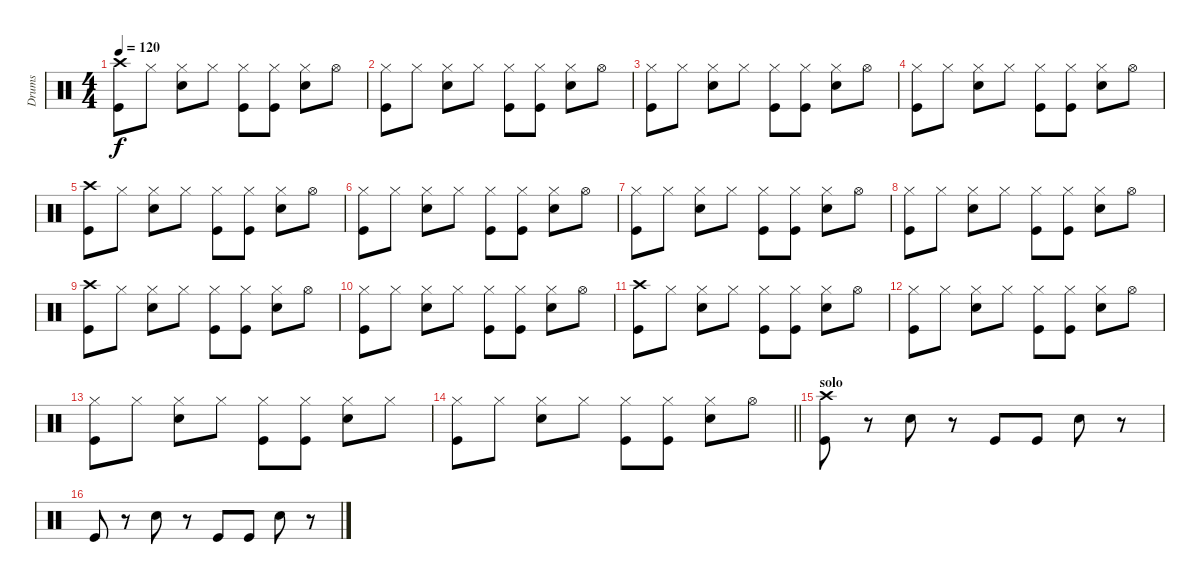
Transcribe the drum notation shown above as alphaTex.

\track ("Drums" "Drums") {instrument percussion}
\staff {score}
\articulation defaults
\ts (4 4)
\tempo 120
\clef neutral
\ks c
("Crash high (hit)" "Kick (hit)").8{dy f} "Hi-Hat (closed)".8 ("Hi-Hat (closed)" "Electric Snare (hit)").8 "Hi-Hat (closed)".8 ("Hi-Hat (closed)" "Kick (hit)").8 ("Hi-Hat (closed)" "Kick (hit)").8 ("Hi-Hat (closed)" "Electric Snare (hit)").8 "Hi-Hat (open)".8 |
("Hi-Hat (closed)" "Kick (hit)").8 "Hi-Hat (closed)".8 ("Hi-Hat (closed)" "Electric Snare (hit)").8 "Hi-Hat (closed)".8 ("Hi-Hat (closed)" "Kick (hit)").8 ("Hi-Hat (closed)" "Kick (hit)").8 ("Hi-Hat (closed)" "Electric Snare (hit)").8 "Hi-Hat (open)".8 |
("Hi-Hat (closed)" "Kick (hit)").8 "Hi-Hat (closed)".8 ("Hi-Hat (closed)" "Electric Snare (hit)").8 "Hi-Hat (closed)".8 ("Hi-Hat (closed)" "Kick (hit)").8 ("Hi-Hat (closed)" "Kick (hit)").8 ("Hi-Hat (closed)" "Electric Snare (hit)").8 "Hi-Hat (open)".8 |
("Hi-Hat (closed)" "Kick (hit)").8 "Hi-Hat (closed)".8 ("Hi-Hat (closed)" "Electric Snare (hit)").8 "Hi-Hat (closed)".8 ("Hi-Hat (closed)" "Kick (hit)").8 ("Hi-Hat (closed)" "Kick (hit)").8 ("Hi-Hat (closed)" "Electric Snare (hit)").8 "Hi-Hat (open)".8 |
("Crash high (hit)" "Kick (hit)").8 "Hi-Hat (closed)".8 ("Hi-Hat (closed)" "Electric Snare (hit)").8 "Hi-Hat (closed)".8 ("Hi-Hat (closed)" "Kick (hit)").8 ("Hi-Hat (closed)" "Kick (hit)").8 ("Hi-Hat (closed)" "Electric Snare (hit)").8 "Hi-Hat (open)".8 |
("Hi-Hat (closed)" "Kick (hit)").8 "Hi-Hat (closed)".8 ("Hi-Hat (closed)" "Electric Snare (hit)").8 "Hi-Hat (closed)".8 ("Hi-Hat (closed)" "Kick (hit)").8 ("Hi-Hat (closed)" "Kick (hit)").8 ("Hi-Hat (closed)" "Electric Snare (hit)").8 "Hi-Hat (open)".8 |
("Hi-Hat (closed)" "Kick (hit)").8 "Hi-Hat (closed)".8 ("Hi-Hat (closed)" "Electric Snare (hit)").8 "Hi-Hat (closed)".8 ("Hi-Hat (closed)" "Kick (hit)").8 ("Hi-Hat (closed)" "Kick (hit)").8 ("Hi-Hat (closed)" "Electric Snare (hit)").8 "Hi-Hat (open)".8 |
("Hi-Hat (closed)" "Kick (hit)").8 "Hi-Hat (closed)".8 ("Hi-Hat (closed)" "Electric Snare (hit)").8 "Hi-Hat (closed)".8 ("Hi-Hat (closed)" "Kick (hit)").8 ("Hi-Hat (closed)" "Kick (hit)").8 ("Hi-Hat (closed)" "Electric Snare (hit)").8 "Hi-Hat (open)".8 |
("Crash high (hit)" "Kick (hit)").8 "Hi-Hat (closed)".8 ("Hi-Hat (closed)" "Electric Snare (hit)").8 "Hi-Hat (closed)".8 ("Hi-Hat (closed)" "Kick (hit)").8 ("Hi-Hat (closed)" "Kick (hit)").8 ("Hi-Hat (closed)" "Electric Snare (hit)").8 "Hi-Hat (open)".8 |
("Hi-Hat (closed)" "Kick (hit)").8 "Hi-Hat (closed)".8 ("Hi-Hat (closed)" "Electric Snare (hit)").8 "Hi-Hat (closed)".8 ("Hi-Hat (closed)" "Kick (hit)").8 ("Hi-Hat (closed)" "Kick (hit)").8 ("Hi-Hat (closed)" "Electric Snare (hit)").8 "Hi-Hat (open)".8 |
("Crash high (hit)" "Kick (hit)").8 "Hi-Hat (closed)".8 ("Hi-Hat (closed)" "Electric Snare (hit)").8 "Hi-Hat (closed)".8 ("Hi-Hat (closed)" "Kick (hit)").8 ("Hi-Hat (closed)" "Kick (hit)").8 ("Hi-Hat (closed)" "Electric Snare (hit)").8 "Hi-Hat (open)".8 |
("Hi-Hat (closed)" "Kick (hit)").8 "Hi-Hat (closed)".8 ("Hi-Hat (closed)" "Electric Snare (hit)").8 "Hi-Hat (closed)".8 ("Hi-Hat (closed)" "Kick (hit)").8 ("Hi-Hat (closed)" "Kick (hit)").8 ("Hi-Hat (closed)" "Electric Snare (hit)").8 "Hi-Hat (open)".8 |
("Hi-Hat (closed)" "Kick (hit)").8 "Hi-Hat (closed)".8 ("Hi-Hat (closed)" "Electric Snare (hit)").8 "Hi-Hat (closed)".8 ("Hi-Hat (closed)" "Kick (hit)").8 ("Hi-Hat (closed)" "Kick (hit)").8 ("Hi-Hat (closed)" "Electric Snare (hit)").8 "Hi-Hat (closed)".8 |
\barLineRight lightlight
("Hi-Hat (closed)" "Kick (hit)").8 "Hi-Hat (closed)".8 ("Hi-Hat (closed)" "Electric Snare (hit)").8 "Hi-Hat (closed)".8 ("Hi-Hat (closed)" "Kick (hit)").8 ("Hi-Hat (closed)" "Kick (hit)").8 ("Hi-Hat (closed)" "Electric Snare (hit)").8 "Hi-Hat (open)".8 |
\section ("" "solo")
("Crash high (hit)" "Kick (hit)").8 r.8 "Electric Snare (hit)".8 r.8 "Kick (hit)".8 "Kick (hit)".8 "Electric Snare (hit)".8 r.8 |
"Kick (hit)".8 r.8 "Electric Snare (hit)".8 r.8 "Kick (hit)".8 "Kick (hit)".8 "Electric Snare (hit)".8 r.8
